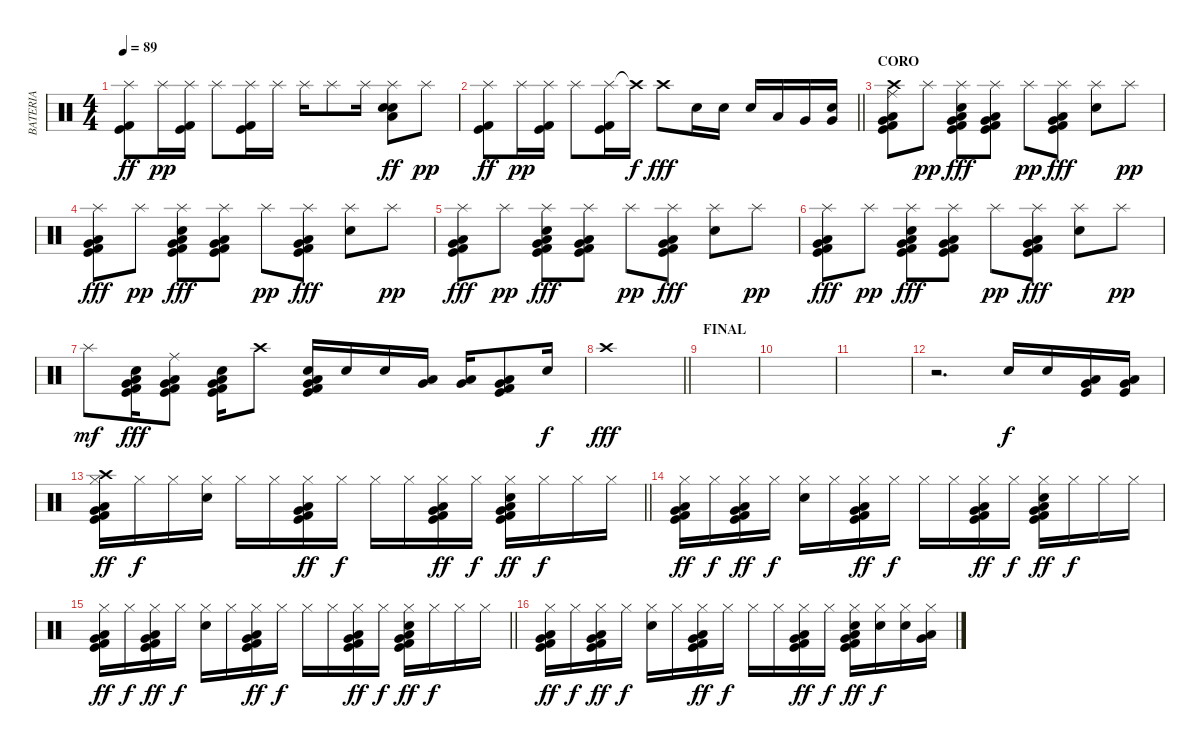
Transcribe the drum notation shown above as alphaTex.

\track ("BATERIA" "BATERIA") {instrument percussion}
\staff {score}
\articulation defaults
\ts (4 4)
\tempo 89
\clef neutral
\ks c
("Splash (hit)" "Kick (hit)" "Kick (hit) 2").8{dy ff} "Splash (hit)".16{dy pp} ("Splash (hit)" "Kick (hit)" "Kick (hit) 2").16 "Splash (hit)".8 ("Splash (hit)" "Kick (hit)" "Kick (hit) 2").16 "Splash (hit)".16 "Splash (hit)".16 "Splash (hit)".8 "Splash (hit)".16 ("Splash (hit)" "Snare (hit) 2" "Snare (hit) 2" "Low Floor Tom (hit)").8{dy ff} "Splash (hit)".8{dy pp} |
\barLineRight lightlight
("Splash (hit)" "Kick (hit)" "Kick (hit) 2").8{dy ff} "Splash (hit)".16{dy pp} ("Splash (hit)" "Kick (hit)" "Kick (hit) 2").16 "Splash (hit)".8 ("Splash (hit)" "Kick (hit)" "Kick (hit) 2").16 "Crash high (hit)"{t}.16{dy f} "Crash high (hit)".8{dy fff} "Snare (hit) 2".16 "Snare (hit) 2".16 "Snare (hit) 2".16 "Low Floor Tom (hit)".16 "Very Low Tom (hit)".16 ("Very Low Tom (hit)" "Snare (hit) 2").16 |
\section ("" "CORO")
("Ride (middle)" "Crash high (hit)" "Kick (hit)" "Kick (hit) 2" "Low Floor Tom (hit)" "Very Low Tom (hit)").8 "Splash (hit)".8{dy pp} ("Splash (hit)" "Very Low Tom (hit)" "Kick (hit)" "Kick (hit) 2" "Low Floor Tom (hit)" "Snare (hit) 2").8{dy fff} ("Splash (hit)" "Very Low Tom (hit)" "Kick (hit)" "Kick (hit) 2" "Low Floor Tom (hit)").8 "Splash (hit)".8{dy pp} ("Splash (hit)" "Very Low Tom (hit)" "Kick (hit)" "Kick (hit) 2" "Low Floor Tom (hit)").8{dy fff} ("Splash (hit)" "Snare (hit) 2").8 "Splash (hit)".8{dy pp} |
("Splash (hit)" "Very Low Tom (hit)" "Kick (hit)" "Kick (hit) 2" "Low Floor Tom (hit)").8{dy fff} "Splash (hit)".8{dy pp} ("Splash (hit)" "Very Low Tom (hit)" "Kick (hit)" "Kick (hit) 2" "Low Floor Tom (hit)" "Snare (hit) 2").8{dy fff} ("Splash (hit)" "Very Low Tom (hit)" "Kick (hit)" "Kick (hit) 2" "Low Floor Tom (hit)").8 "Splash (hit)".8{dy pp} ("Splash (hit)" "Very Low Tom (hit)" "Kick (hit)" "Kick (hit) 2" "Low Floor Tom (hit)").8{dy fff} ("Splash (hit)" "Snare (hit) 2").8 "Splash (hit)".8{dy pp} |
("Splash (hit)" "Very Low Tom (hit)" "Kick (hit)" "Kick (hit) 2" "Low Floor Tom (hit)").8{dy fff} "Splash (hit)".8{dy pp} ("Splash (hit)" "Very Low Tom (hit)" "Kick (hit)" "Kick (hit) 2" "Low Floor Tom (hit)" "Snare (hit) 2").8{dy fff} ("Splash (hit)" "Very Low Tom (hit)" "Kick (hit)" "Kick (hit) 2" "Low Floor Tom (hit)").8 "Splash (hit)".8{dy pp} ("Splash (hit)" "Very Low Tom (hit)" "Kick (hit)" "Kick (hit) 2" "Low Floor Tom (hit)").8{dy fff} ("Splash (hit)" "Snare (hit) 2").8 "Splash (hit)".8{dy pp} |
("Splash (hit)" "Very Low Tom (hit)" "Kick (hit)" "Kick (hit) 2" "Low Floor Tom (hit)").8{dy fff} "Splash (hit)".8{dy pp} ("Splash (hit)" "Very Low Tom (hit)" "Kick (hit)" "Kick (hit) 2" "Low Floor Tom (hit)" "Snare (hit) 2").8{dy fff} ("Splash (hit)" "Very Low Tom (hit)" "Kick (hit)" "Kick (hit) 2" "Low Floor Tom (hit)").8 "Splash (hit)".8{dy pp} ("Splash (hit)" "Very Low Tom (hit)" "Kick (hit)" "Kick (hit) 2" "Low Floor Tom (hit)").8{dy fff} ("Splash (hit)" "Snare (hit) 2").8 "Splash (hit)".8{dy pp} |
"Splash (hit)".8{dy mf} ("Kick (hit)" "Kick (hit) 2" "Low Floor Tom (hit)" "Very Low Tom (hit)" "Snare (hit) 2").16{dy fff} ("Ride (middle)" "Kick (hit)" "Kick (hit) 2" "Low Floor Tom (hit)" "Very Low Tom (hit)").8 ("Kick (hit)" "Kick (hit) 2" "Low Floor Tom (hit)" "Very Low Tom (hit)" "Snare (hit) 2").16 "Crash high (hit)".8 ("Kick (hit)" "Kick (hit) 2" "Low Floor Tom (hit)" "Very Low Tom (hit)" "Snare (hit) 2").16 "Snare (hit) 2".16 "Snare (hit) 2".16 ("Very Low Tom (hit)" "Low Floor Tom (hit)").16 ("Very Low Tom (hit)" "Low Floor Tom (hit)").16 ("Kick (hit)" "Kick (hit) 2" "Low Floor Tom (hit)" "Very Low Tom (hit)").8 "Snare (hit) 2".16{dy f} |
\barLineRight lightlight "Crash high (hit)".1{dy fff}
|
\section ("" "FINAL")
|
|
|
r.2{d} "Snare (hit) 2".16{dy f} "Snare (hit) 2".16 ("Low Floor Tom (hit)" "Very Low Tom (hit)" "Kick (hit)").16 ("Low Floor Tom (hit)" "Very Low Tom (hit)" "Kick (hit)").16 |
\barLineRight lightlight
("Hi-Hat (closed)" "Crash high (hit)" "Very Low Tom (hit)" "Kick (hit)" "Kick (hit) 2" "Low Floor Tom (hit)").16{dy ff} "Hi-Hat (closed)".16{dy f} "Hi-Hat (closed)".16 ("Hi-Hat (closed)" "Snare (hit) 2").16 "Hi-Hat (closed)".16 "Hi-Hat (closed)".16 ("Hi-Hat (closed)" "Very Low Tom (hit)" "Kick (hit)" "Kick (hit) 2" "Low Floor Tom (hit)").16{dy ff} "Hi-Hat (closed)".16{dy f} "Hi-Hat (closed)".16 "Hi-Hat (closed)".16 ("Hi-Hat (closed)" "Very Low Tom (hit)" "Kick (hit)" "Kick (hit) 2" "Low Floor Tom (hit)").16{dy ff} "Hi-Hat (closed)".16{dy f} ("Hi-Hat (closed)" "Snare (hit) 2" "Very Low Tom (hit)" "Kick (hit)" "Kick (hit) 2" "Low Floor Tom (hit)").16{dy ff} "Hi-Hat (closed)".16{dy f} "Hi-Hat (closed)".16 "Hi-Hat (closed)".16 |
("Hi-Hat (closed)" "Very Low Tom (hit)" "Kick (hit)" "Kick (hit) 2" "Low Floor Tom (hit)").16{dy ff} "Hi-Hat (closed)".16{dy f} ("Hi-Hat (closed)" "Very Low Tom (hit)" "Kick (hit)" "Kick (hit) 2" "Low Floor Tom (hit)").16{dy ff} "Hi-Hat (closed)".16{dy f} ("Hi-Hat (closed)" "Snare (hit) 2").16 "Hi-Hat (closed)".16 ("Hi-Hat (closed)" "Very Low Tom (hit)" "Kick (hit)" "Kick (hit) 2" "Low Floor Tom (hit)").16{dy ff} "Hi-Hat (closed)".16{dy f} "Hi-Hat (closed)".16 "Hi-Hat (closed)".16 ("Hi-Hat (closed)" "Very Low Tom (hit)" "Kick (hit)" "Kick (hit) 2" "Low Floor Tom (hit)").16{dy ff} "Hi-Hat (closed)".16{dy f} ("Hi-Hat (closed)" "Snare (hit) 2" "Very Low Tom (hit)" "Kick (hit)" "Kick (hit) 2" "Low Floor Tom (hit)").16{dy ff} "Hi-Hat (closed)".16{dy f} "Hi-Hat (closed)".16 "Hi-Hat (closed)".16 |
\barLineRight lightlight
("Hi-Hat (closed)" "Very Low Tom (hit)" "Kick (hit)" "Kick (hit) 2" "Low Floor Tom (hit)").16{dy ff} "Hi-Hat (closed)".16{dy f} ("Hi-Hat (closed)" "Very Low Tom (hit)" "Kick (hit)" "Kick (hit) 2" "Low Floor Tom (hit)").16{dy ff} "Hi-Hat (closed)".16{dy f} ("Hi-Hat (closed)" "Snare (hit) 2").16 "Hi-Hat (closed)".16 ("Hi-Hat (closed)" "Very Low Tom (hit)" "Kick (hit)" "Kick (hit) 2" "Low Floor Tom (hit)").16{dy ff} "Hi-Hat (closed)".16{dy f} "Hi-Hat (closed)".16 "Hi-Hat (closed)".16 ("Hi-Hat (closed)" "Very Low Tom (hit)" "Kick (hit)" "Kick (hit) 2" "Low Floor Tom (hit)").16{dy ff} "Hi-Hat (closed)".16{dy f} ("Hi-Hat (closed)" "Snare (hit) 2" "Very Low Tom (hit)" "Kick (hit)" "Kick (hit) 2" "Low Floor Tom (hit)").16{dy ff} "Hi-Hat (closed)".16{dy f} "Hi-Hat (closed)".16 "Hi-Hat (closed)".16 |
("Hi-Hat (closed)" "Very Low Tom (hit)" "Kick (hit)" "Kick (hit) 2" "Low Floor Tom (hit)").16{dy ff} "Hi-Hat (closed)".16{dy f} ("Hi-Hat (closed)" "Very Low Tom (hit)" "Kick (hit)" "Kick (hit) 2" "Low Floor Tom (hit)").16{dy ff} "Hi-Hat (closed)".16{dy f} ("Hi-Hat (closed)" "Snare (hit) 2").16 "Hi-Hat (closed)".16 ("Hi-Hat (closed)" "Very Low Tom (hit)" "Kick (hit)" "Kick (hit) 2" "Low Floor Tom (hit)").16{dy ff} "Hi-Hat (closed)".16{dy f} "Hi-Hat (closed)".16 "Hi-Hat (closed)".16 ("Hi-Hat (closed)" "Very Low Tom (hit)" "Kick (hit)" "Kick (hit) 2" "Low Floor Tom (hit)").16{dy ff} "Hi-Hat (closed)".16{dy f} ("Hi-Hat (closed)" "Snare (hit) 2" "Very Low Tom (hit)" "Kick (hit)" "Kick (hit) 2" "Low Floor Tom (hit)").16{dy ff} ("Hi-Hat (closed)" "Snare (hit) 2").16{dy f} ("Hi-Hat (closed)" "Snare (hit) 2").16 ("Hi-Hat (closed)" "Low Floor Tom (hit)" "Very Low Tom (hit)").16
